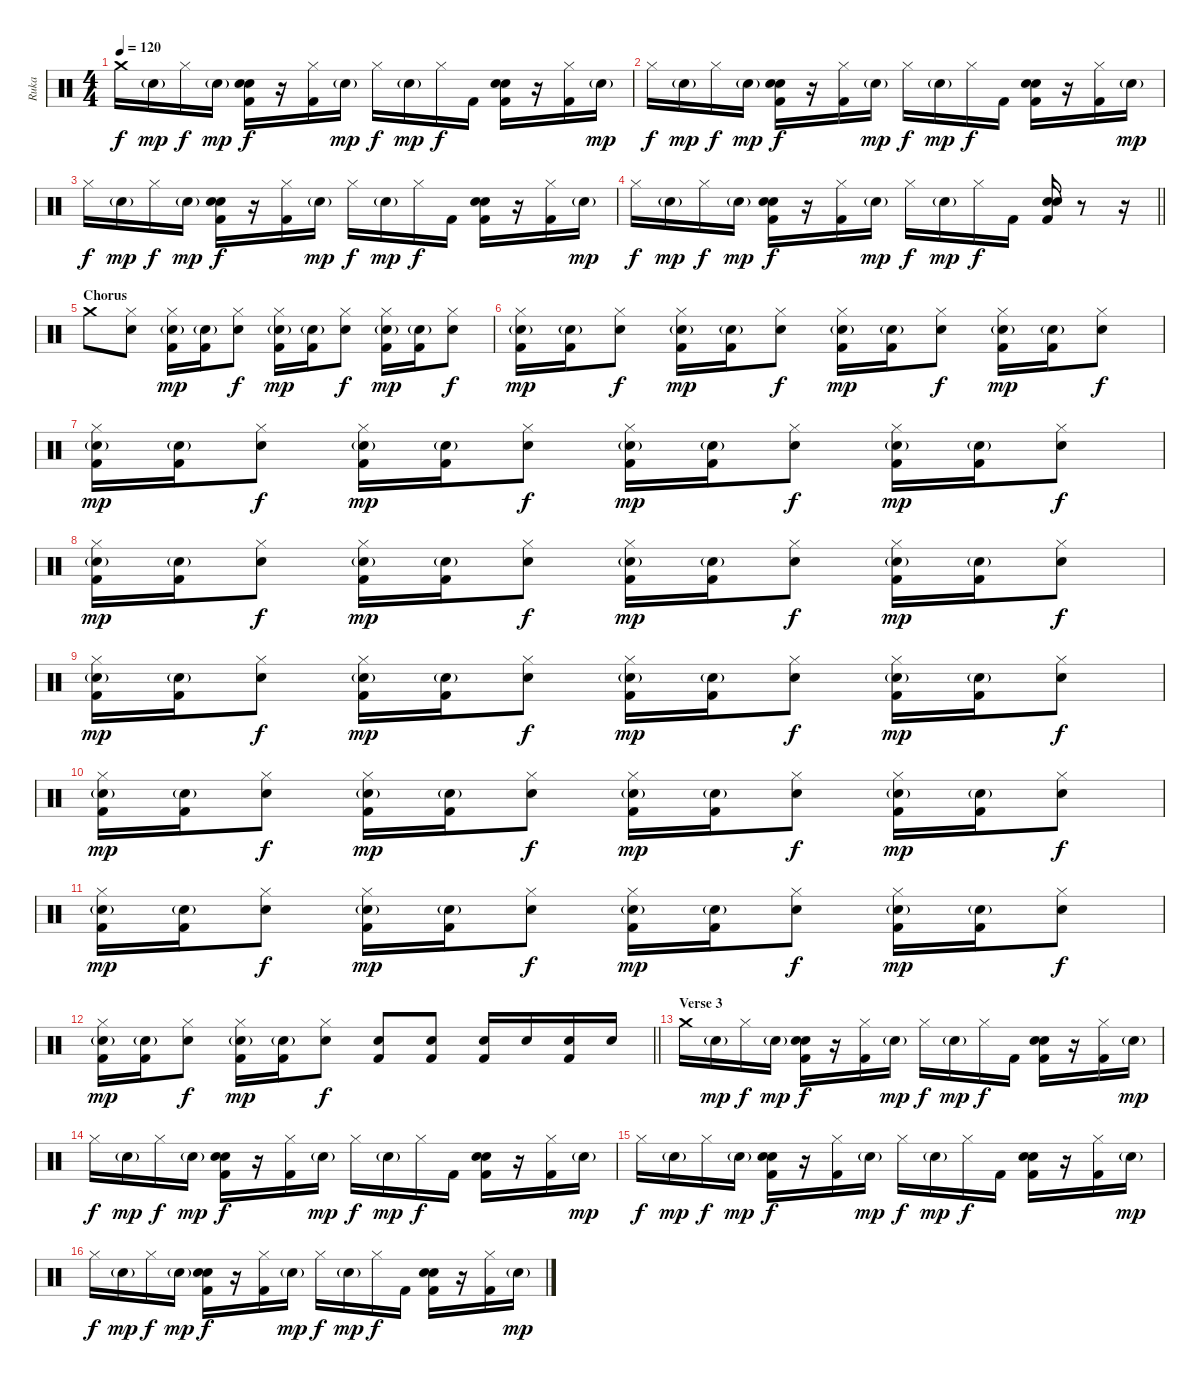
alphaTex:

\track ("Ruka" "Ruka") {instrument percussion}
\staff {score}
\articulation defaults
\ts (4 4)
\tempo 120
\clef neutral
\ks c "Crash medium (hit)".16{dy f} "Snare (hit) 2"{g}.16{dy mp} "Hi-Hat (closed)".16{dy f} "Snare (hit) 2"{g}.16{dy mp}
("Kick (hit) 2" "Snare (hit) 2" "Snare (hit) 2").16{dy f} r.16 ("Kick (hit) 2" "Hi-Hat (closed)").16 "Snare (hit) 2"{g}.16{dy mp} "Hi-Hat (closed)".16{dy f} "Snare (hit) 2"{g}.16{dy mp} "Hi-Hat (closed)".16{dy f} "Kick (hit) 2".16 ("Kick (hit) 2" "Snare (hit) 2" "Snare (hit) 2").16 r.16 ("Kick (hit) 2" "Hi-Hat (closed)").16 "Snare (hit) 2"{g}.16{dy mp} |
"Hi-Hat (closed)".16{dy f} "Snare (hit) 2"{g}.16{dy mp} "Hi-Hat (closed)".16{dy f} "Snare (hit) 2"{g}.16{dy mp} ("Kick (hit) 2" "Snare (hit) 2" "Snare (hit) 2").16{dy f} r.16 ("Kick (hit) 2" "Hi-Hat (closed)").16 "Snare (hit) 2"{g}.16{dy mp} "Hi-Hat (closed)".16{dy f} "Snare (hit) 2"{g}.16{dy mp} "Hi-Hat (closed)".16{dy f} "Kick (hit) 2".16 ("Kick (hit) 2" "Snare (hit) 2" "Snare (hit) 2").16 r.16 ("Kick (hit) 2" "Hi-Hat (closed)").16 "Snare (hit) 2"{g}.16{dy mp} |
"Hi-Hat (closed)".16{dy f} "Snare (hit) 2"{g}.16{dy mp} "Hi-Hat (closed)".16{dy f} "Snare (hit) 2"{g}.16{dy mp} ("Kick (hit) 2" "Snare (hit) 2" "Snare (hit) 2").16{dy f} r.16 ("Kick (hit) 2" "Hi-Hat (closed)").16 "Snare (hit) 2"{g}.16{dy mp} "Hi-Hat (closed)".16{dy f} "Snare (hit) 2"{g}.16{dy mp} "Hi-Hat (closed)".16{dy f} "Kick (hit) 2".16 ("Kick (hit) 2" "Snare (hit) 2" "Snare (hit) 2").16 r.16 ("Kick (hit) 2" "Hi-Hat (closed)").16 "Snare (hit) 2"{g}.16{dy mp} |
\barLineRight lightlight "Hi-Hat (closed)".16{dy f} "Snare (hit) 2"{g}.16{dy mp} "Hi-Hat (closed)".16{dy f} "Snare (hit) 2"{g}.16{dy mp}
("Kick (hit) 2" "Snare (hit) 2" "Snare (hit) 2").16{dy f} r.16 ("Kick (hit) 2" "Hi-Hat (closed)").16 "Snare (hit) 2"{g}.16{dy mp} "Hi-Hat (closed)".16{dy f} "Snare (hit) 2"{g}.16{dy mp} "Hi-Hat (closed)".16{dy f} "Kick (hit) 2".16 ("Kick (hit) 2" "Snare (hit) 2" "Snare (hit) 2").16 r.8 r.16 |
\section ("" "Chorus")
"Crash medium (hit)".8 ("Snare (hit) 2" "Hi-Hat (closed)").8 ("Kick (hit) 2" "Snare (hit) 2"{g} "Hi-Hat (closed)").16{dy mp} ("Kick (hit) 2" "Snare (hit) 2"{g}).16 ("Snare (hit) 2" "Hi-Hat (closed)").8{dy f} ("Kick (hit) 2" "Snare (hit) 2"{g} "Hi-Hat (closed)").16{dy mp} ("Kick (hit) 2" "Snare (hit) 2"{g}).16 ("Snare (hit) 2" "Hi-Hat (closed)").8{dy f} ("Kick (hit) 2" "Snare (hit) 2"{g} "Hi-Hat (closed)").16{dy mp} ("Kick (hit) 2" "Snare (hit) 2"{g}).16 ("Snare (hit) 2" "Hi-Hat (closed)").8{dy f} |
("Kick (hit) 2" "Snare (hit) 2"{g} "Hi-Hat (closed)").16{dy mp} ("Kick (hit) 2" "Snare (hit) 2"{g}).16 ("Snare (hit) 2" "Hi-Hat (closed)").8{dy f} ("Kick (hit) 2" "Snare (hit) 2"{g} "Hi-Hat (closed)").16{dy mp} ("Kick (hit) 2" "Snare (hit) 2"{g}).16 ("Snare (hit) 2" "Hi-Hat (closed)").8{dy f} ("Kick (hit) 2" "Snare (hit) 2"{g} "Hi-Hat (closed)").16{dy mp} ("Kick (hit) 2" "Snare (hit) 2"{g}).16 ("Snare (hit) 2" "Hi-Hat (closed)").8{dy f} ("Kick (hit) 2" "Snare (hit) 2"{g} "Hi-Hat (closed)").16{dy mp} ("Kick (hit) 2" "Snare (hit) 2"{g}).16 ("Snare (hit) 2" "Hi-Hat (closed)").8{dy f} |
("Kick (hit) 2" "Snare (hit) 2"{g} "Hi-Hat (closed)").16{dy mp} ("Kick (hit) 2" "Snare (hit) 2"{g}).16 ("Snare (hit) 2" "Hi-Hat (closed)").8{dy f} ("Kick (hit) 2" "Snare (hit) 2"{g} "Hi-Hat (closed)").16{dy mp} ("Kick (hit) 2" "Snare (hit) 2"{g}).16 ("Snare (hit) 2" "Hi-Hat (closed)").8{dy f} ("Kick (hit) 2" "Snare (hit) 2"{g} "Hi-Hat (closed)").16{dy mp} ("Kick (hit) 2" "Snare (hit) 2"{g}).16 ("Snare (hit) 2" "Hi-Hat (closed)").8{dy f} ("Kick (hit) 2" "Snare (hit) 2"{g} "Hi-Hat (closed)").16{dy mp} ("Kick (hit) 2" "Snare (hit) 2"{g}).16 ("Snare (hit) 2" "Hi-Hat (closed)").8{dy f} |
("Kick (hit) 2" "Snare (hit) 2"{g} "Hi-Hat (closed)").16{dy mp} ("Kick (hit) 2" "Snare (hit) 2"{g}).16 ("Snare (hit) 2" "Hi-Hat (closed)").8{dy f} ("Kick (hit) 2" "Snare (hit) 2"{g} "Hi-Hat (closed)").16{dy mp} ("Kick (hit) 2" "Snare (hit) 2"{g}).16 ("Snare (hit) 2" "Hi-Hat (closed)").8{dy f} ("Kick (hit) 2" "Snare (hit) 2"{g} "Hi-Hat (closed)").16{dy mp} ("Kick (hit) 2" "Snare (hit) 2"{g}).16 ("Snare (hit) 2" "Hi-Hat (closed)").8{dy f} ("Kick (hit) 2" "Snare (hit) 2"{g} "Hi-Hat (closed)").16{dy mp} ("Kick (hit) 2" "Snare (hit) 2"{g}).16 ("Snare (hit) 2" "Hi-Hat (closed)").8{dy f} |
("Kick (hit) 2" "Snare (hit) 2"{g} "Hi-Hat (closed)").16{dy mp} ("Kick (hit) 2" "Snare (hit) 2"{g}).16 ("Snare (hit) 2" "Hi-Hat (closed)").8{dy f} ("Kick (hit) 2" "Snare (hit) 2"{g} "Hi-Hat (closed)").16{dy mp} ("Kick (hit) 2" "Snare (hit) 2"{g}).16 ("Snare (hit) 2" "Hi-Hat (closed)").8{dy f} ("Kick (hit) 2" "Snare (hit) 2"{g} "Hi-Hat (closed)").16{dy mp} ("Kick (hit) 2" "Snare (hit) 2"{g}).16 ("Snare (hit) 2" "Hi-Hat (closed)").8{dy f} ("Kick (hit) 2" "Snare (hit) 2"{g} "Hi-Hat (closed)").16{dy mp} ("Kick (hit) 2" "Snare (hit) 2"{g}).16 ("Snare (hit) 2" "Hi-Hat (closed)").8{dy f} |
("Kick (hit) 2" "Snare (hit) 2"{g} "Hi-Hat (closed)").16{dy mp} ("Kick (hit) 2" "Snare (hit) 2"{g}).16 ("Snare (hit) 2" "Hi-Hat (closed)").8{dy f} ("Kick (hit) 2" "Snare (hit) 2"{g} "Hi-Hat (closed)").16{dy mp} ("Kick (hit) 2" "Snare (hit) 2"{g}).16 ("Snare (hit) 2" "Hi-Hat (closed)").8{dy f} ("Kick (hit) 2" "Snare (hit) 2"{g} "Hi-Hat (closed)").16{dy mp} ("Kick (hit) 2" "Snare (hit) 2"{g}).16 ("Snare (hit) 2" "Hi-Hat (closed)").8{dy f} ("Kick (hit) 2" "Snare (hit) 2"{g} "Hi-Hat (closed)").16{dy mp} ("Kick (hit) 2" "Snare (hit) 2"{g}).16 ("Snare (hit) 2" "Hi-Hat (closed)").8{dy f} |
("Kick (hit) 2" "Snare (hit) 2"{g} "Hi-Hat (closed)").16{dy mp} ("Kick (hit) 2" "Snare (hit) 2"{g}).16 ("Snare (hit) 2" "Hi-Hat (closed)").8{dy f} ("Kick (hit) 2" "Snare (hit) 2"{g} "Hi-Hat (closed)").16{dy mp} ("Kick (hit) 2" "Snare (hit) 2"{g}).16 ("Snare (hit) 2" "Hi-Hat (closed)").8{dy f} ("Kick (hit) 2" "Snare (hit) 2"{g} "Hi-Hat (closed)").16{dy mp} ("Kick (hit) 2" "Snare (hit) 2"{g}).16 ("Snare (hit) 2" "Hi-Hat (closed)").8{dy f} ("Kick (hit) 2" "Snare (hit) 2"{g} "Hi-Hat (closed)").16{dy mp} ("Kick (hit) 2" "Snare (hit) 2"{g}).16 ("Snare (hit) 2" "Hi-Hat (closed)").8{dy f} |
\barLineRight lightlight
("Kick (hit) 2" "Snare (hit) 2"{g} "Hi-Hat (closed)").16{dy mp} ("Kick (hit) 2" "Snare (hit) 2"{g}).16 ("Snare (hit) 2" "Hi-Hat (closed)").8{dy f} ("Kick (hit) 2" "Snare (hit) 2"{g} "Hi-Hat (closed)").16{dy mp} ("Kick (hit) 2" "Snare (hit) 2"{g}).16 ("Snare (hit) 2" "Hi-Hat (closed)").8{dy f} ("Kick (hit) 2" "Snare (hit) 2").8 ("Kick (hit) 2" "Snare (hit) 2").8 ("Kick (hit) 2" "Snare (hit) 2").16 "Snare (hit) 2".16 ("Kick (hit) 2" "Snare (hit) 2").16 "Snare (hit) 2".16 |
\section ("" "Verse 3")
"Crash medium (hit)".16 "Snare (hit) 2"{g}.16{dy mp} "Hi-Hat (closed)".16{dy f} "Snare (hit) 2"{g}.16{dy mp} ("Kick (hit) 2" "Snare (hit) 2" "Snare (hit) 2").16{dy f} r.16 ("Kick (hit) 2" "Hi-Hat (closed)").16 "Snare (hit) 2"{g}.16{dy mp} "Hi-Hat (closed)".16{dy f} "Snare (hit) 2"{g}.16{dy mp} "Hi-Hat (closed)".16{dy f} "Kick (hit) 2".16 ("Kick (hit) 2" "Snare (hit) 2" "Snare (hit) 2").16 r.16 ("Kick (hit) 2" "Hi-Hat (closed)").16 "Snare (hit) 2"{g}.16{dy mp} |
"Hi-Hat (closed)".16{dy f} "Snare (hit) 2"{g}.16{dy mp} "Hi-Hat (closed)".16{dy f} "Snare (hit) 2"{g}.16{dy mp} ("Kick (hit) 2" "Snare (hit) 2" "Snare (hit) 2").16{dy f} r.16 ("Kick (hit) 2" "Hi-Hat (closed)").16 "Snare (hit) 2"{g}.16{dy mp} "Hi-Hat (closed)".16{dy f} "Snare (hit) 2"{g}.16{dy mp} "Hi-Hat (closed)".16{dy f} "Kick (hit) 2".16 ("Kick (hit) 2" "Snare (hit) 2" "Snare (hit) 2").16 r.16 ("Kick (hit) 2" "Hi-Hat (closed)").16 "Snare (hit) 2"{g}.16{dy mp} |
"Hi-Hat (closed)".16{dy f} "Snare (hit) 2"{g}.16{dy mp} "Hi-Hat (closed)".16{dy f} "Snare (hit) 2"{g}.16{dy mp} ("Kick (hit) 2" "Snare (hit) 2" "Snare (hit) 2").16{dy f} r.16 ("Kick (hit) 2" "Hi-Hat (closed)").16 "Snare (hit) 2"{g}.16{dy mp} "Hi-Hat (closed)".16{dy f} "Snare (hit) 2"{g}.16{dy mp} "Hi-Hat (closed)".16{dy f} "Kick (hit) 2".16 ("Kick (hit) 2" "Snare (hit) 2" "Snare (hit) 2").16 r.16 ("Kick (hit) 2" "Hi-Hat (closed)").16 "Snare (hit) 2"{g}.16{dy mp} |
"Hi-Hat (closed)".16{dy f} "Snare (hit) 2"{g}.16{dy mp} "Hi-Hat (closed)".16{dy f} "Snare (hit) 2"{g}.16{dy mp} ("Kick (hit) 2" "Snare (hit) 2" "Snare (hit) 2").16{dy f} r.16 ("Kick (hit) 2" "Hi-Hat (closed)").16 "Snare (hit) 2"{g}.16{dy mp} "Hi-Hat (closed)".16{dy f} "Snare (hit) 2"{g}.16{dy mp} "Hi-Hat (closed)".16{dy f} "Kick (hit) 2".16 ("Kick (hit) 2" "Snare (hit) 2" "Snare (hit) 2").16 r.16 ("Kick (hit) 2" "Hi-Hat (closed)").16 "Snare (hit) 2"{g}.16{dy mp}
